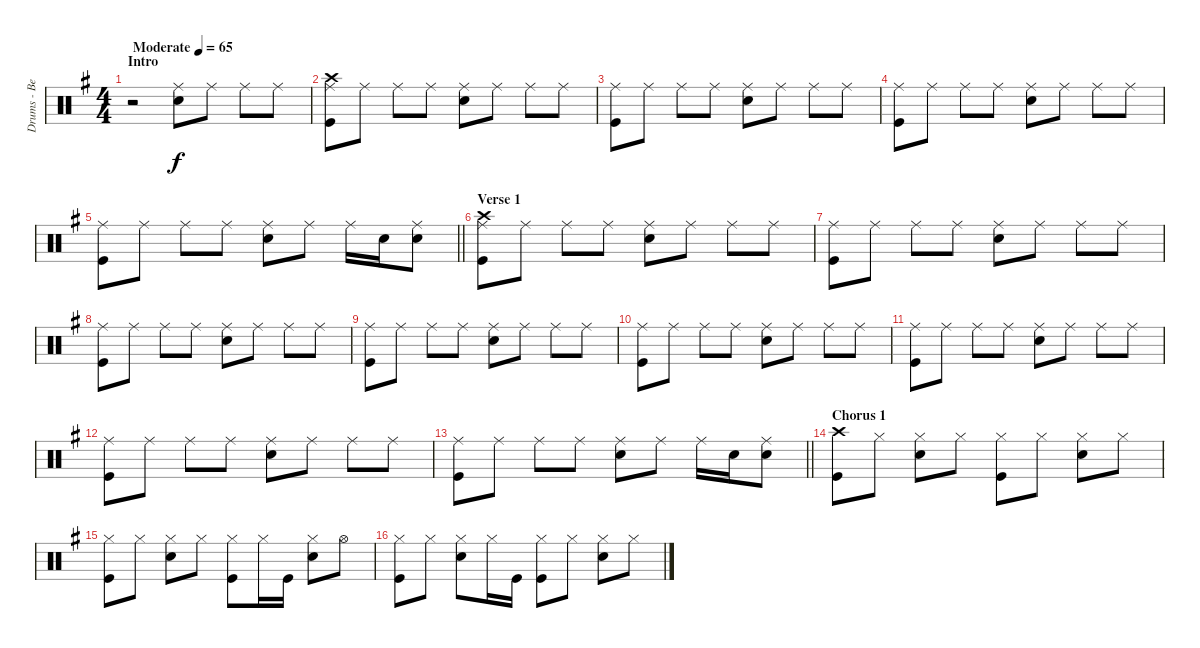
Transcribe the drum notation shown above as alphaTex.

\track ("Drums - Ben Johnston" "Drums - Be") {instrument percussion}
\staff {score}
\articulation defaults
\ts (4 4)
\section ("" "Intro")
\tempo (65 "Moderate")
\clef neutral
\ks g
r.2{dy f} ("Ride (middle)" "Snare (hit) 2").8 "Ride (middle)".8 "Ride (middle)".8 "Ride (middle)".8 |
("Ride (middle)" "Crash high (hit)" "Kick (hit)").8 "Ride (middle)".8 "Ride (middle)".8 "Ride (middle)".8 ("Ride (middle)" "Snare (hit) 2").8 "Ride (middle)".8 "Ride (middle)".8 "Ride (middle)".8 |
("Ride (middle)" "Kick (hit)").8 "Ride (middle)".8 "Ride (middle)".8 "Ride (middle)".8 ("Ride (middle)" "Snare (hit) 2").8 "Ride (middle)".8 "Ride (middle)".8 "Ride (middle)".8 |
("Ride (middle)" "Kick (hit)").8 "Ride (middle)".8 "Ride (middle)".8 "Ride (middle)".8 ("Ride (middle)" "Snare (hit) 2").8 "Ride (middle)".8 "Ride (middle)".8 "Ride (middle)".8 |
\barLineRight lightlight
("Ride (middle)" "Kick (hit)").8 "Ride (middle)".8 "Ride (middle)".8 "Ride (middle)".8 ("Ride (middle)" "Snare (hit) 2").8 "Ride (middle)".8 "Ride (middle)".16 "Snare (hit) 2".16 ("Ride (middle)" "Snare (hit) 2").8 |
\section ("" "Verse 1")
("Ride (middle)" "Crash high (hit)" "Kick (hit)").8 "Ride (middle)".8 "Ride (middle)".8 "Ride (middle)".8 ("Ride (middle)" "Snare (hit) 2").8 "Ride (middle)".8 "Ride (middle)".8 "Ride (middle)".8 |
("Ride (middle)" "Kick (hit)").8 "Ride (middle)".8 "Ride (middle)".8 "Ride (middle)".8 ("Ride (middle)" "Snare (hit) 2").8 "Ride (middle)".8 "Ride (middle)".8 "Ride (middle)".8 |
("Ride (middle)" "Kick (hit)").8 "Ride (middle)".8 "Ride (middle)".8 "Ride (middle)".8 ("Ride (middle)" "Snare (hit) 2").8 "Ride (middle)".8 "Ride (middle)".8 "Ride (middle)".8 |
("Ride (middle)" "Kick (hit)").8 "Ride (middle)".8 "Ride (middle)".8 "Ride (middle)".8 ("Ride (middle)" "Snare (hit) 2").8 "Ride (middle)".8 "Ride (middle)".8 "Ride (middle)".8 |
("Ride (middle)" "Kick (hit)").8 "Ride (middle)".8 "Ride (middle)".8 "Ride (middle)".8 ("Ride (middle)" "Snare (hit) 2").8 "Ride (middle)".8 "Ride (middle)".8 "Ride (middle)".8 |
("Ride (middle)" "Kick (hit)").8 "Ride (middle)".8 "Ride (middle)".8 "Ride (middle)".8 ("Ride (middle)" "Snare (hit) 2").8 "Ride (middle)".8 "Ride (middle)".8 "Ride (middle)".8 |
("Ride (middle)" "Kick (hit)").8 "Ride (middle)".8 "Ride (middle)".8 "Ride (middle)".8 ("Ride (middle)" "Snare (hit) 2").8 "Ride (middle)".8 "Ride (middle)".8 "Ride (middle)".8 |
\barLineRight lightlight
("Ride (middle)" "Kick (hit)").8 "Ride (middle)".8 "Ride (middle)".8 "Ride (middle)".8 ("Ride (middle)" "Snare (hit) 2").8 "Ride (middle)".8 "Ride (middle)".16 "Snare (hit) 2".16 ("Ride (middle)" "Snare (hit) 2").8 |
\section ("" "Chorus 1")
("Crash high (hit)" "Kick (hit)").8 "Hi-Hat (closed)".8 ("Hi-Hat (closed)" "Snare (hit) 2").8 "Hi-Hat (closed)".8 ("Hi-Hat (closed)" "Kick (hit)").8 "Hi-Hat (closed)".8 ("Hi-Hat (closed)" "Snare (hit) 2").8 "Hi-Hat (closed)".8 |
("Hi-Hat (closed)" "Kick (hit)").8 "Hi-Hat (closed)".8 ("Hi-Hat (closed)" "Snare (hit) 2").8 "Hi-Hat (closed)".8 ("Hi-Hat (closed)" "Kick (hit)").8 "Hi-Hat (closed)".16 "Kick (hit)".16 ("Hi-Hat (closed)" "Snare (hit) 2").8 "Hi-Hat (open)".8 |
("Hi-Hat (closed)" "Kick (hit)").8 "Hi-Hat (closed)".8 ("Hi-Hat (closed)" "Snare (hit) 2").8 "Hi-Hat (closed)".16 "Kick (hit)".16 ("Hi-Hat (closed)" "Kick (hit)").8 "Hi-Hat (closed)".8 ("Hi-Hat (closed)" "Snare (hit) 2").8 "Hi-Hat (closed)".8
